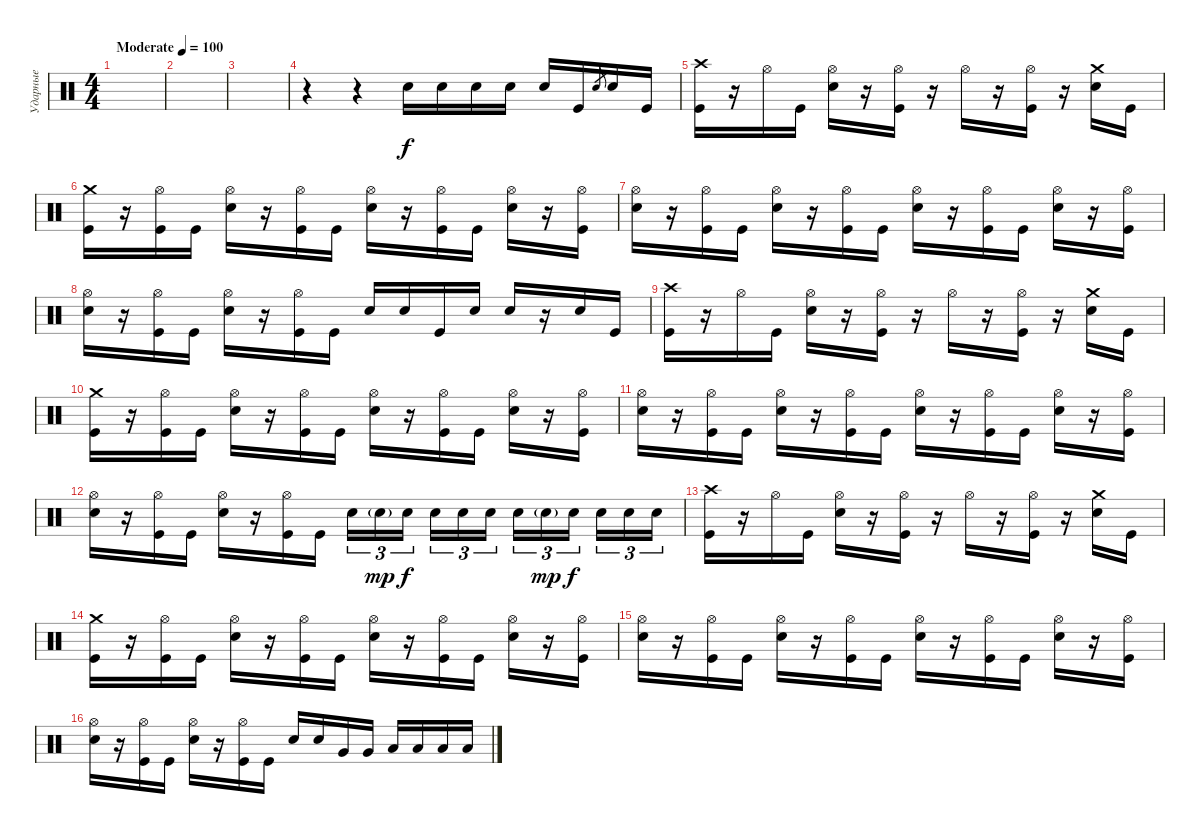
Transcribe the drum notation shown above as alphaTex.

\track ("Ударные" "Ударные") {instrument percussion}
\staff {score}
\articulation defaults
\ts (4 4)
\tempo (100 "Moderate")
\clef neutral
\ks c
|
|
|
r.4 r.4 "Electric Snare (hit)".16 "Electric Snare (hit)".16 "Electric Snare (hit)".16 "Electric Snare (hit)".16 "Electric Snare (hit)".16 "Kick (hit)".16 "Electric Snare (hit)".8{gr} "Electric Snare (hit)".16 "Kick (hit)".16 |
("Crash high (hit)" "Kick (hit)").16 r.16 "Hi-Hat (open)".16 "Kick (hit)".16 ("Hi-Hat (open)" "Electric Snare (hit)").16 r.16 ("Hi-Hat (open)" "Kick (hit)").16 r.16 "Hi-Hat (open)".16 r.16 ("Hi-Hat (open)" "Kick (hit)").16 r.16 ("Crash medium (hit)" "Electric Snare (hit)").16 "Kick (hit)".16 |
("Crash medium (hit)" "Kick (hit)").16 r.16 ("Hi-Hat (open)" "Kick (hit)").16 "Kick (hit)".16 ("Hi-Hat (open)" "Electric Snare (hit)").16 r.16 ("Hi-Hat (open)" "Kick (hit)").16 "Kick (hit)".16 ("Hi-Hat (open)" "Electric Snare (hit)").16 r.16 ("Hi-Hat (open)" "Kick (hit)").16 "Kick (hit)".16 ("Hi-Hat (open)" "Electric Snare (hit)").16 r.16 ("Hi-Hat (open)" "Kick (hit)").16 |
("Hi-Hat (open)" "Electric Snare (hit)").16 r.16 ("Hi-Hat (open)" "Kick (hit)").16 "Kick (hit)".16 ("Hi-Hat (open)" "Electric Snare (hit)").16 r.16 ("Hi-Hat (open)" "Kick (hit)").16 "Kick (hit)".16 ("Hi-Hat (open)" "Electric Snare (hit)").16 r.16 ("Hi-Hat (open)" "Kick (hit)").16 "Kick (hit)".16 ("Hi-Hat (open)" "Electric Snare (hit)").16 r.16 ("Hi-Hat (open)" "Kick (hit)").16 |
("Hi-Hat (open)" "Electric Snare (hit)").16 r.16 ("Hi-Hat (open)" "Kick (hit)").16 "Kick (hit)".16 ("Hi-Hat (open)" "Electric Snare (hit)").16 r.16 ("Hi-Hat (open)" "Kick (hit)").16 "Kick (hit)".16 "Electric Snare (hit)".16 "Electric Snare (hit)".16 "Kick (hit)".16 "Electric Snare (hit)".16 "Electric Snare (hit)".16 r.16 "Electric Snare (hit)".16 "Kick (hit)".16 |
("Crash high (hit)" "Kick (hit)").16 r.16 "Hi-Hat (open)".16 "Kick (hit)".16 ("Hi-Hat (open)" "Electric Snare (hit)").16 r.16 ("Hi-Hat (open)" "Kick (hit)").16 r.16 "Hi-Hat (open)".16 r.16 ("Hi-Hat (open)" "Kick (hit)").16 r.16 ("Crash medium (hit)" "Electric Snare (hit)").16 "Kick (hit)".16 |
("Crash medium (hit)" "Kick (hit)").16 r.16 ("Hi-Hat (open)" "Kick (hit)").16 "Kick (hit)".16 ("Hi-Hat (open)" "Electric Snare (hit)").16 r.16 ("Hi-Hat (open)" "Kick (hit)").16 "Kick (hit)".16 ("Hi-Hat (open)" "Electric Snare (hit)").16 r.16 ("Hi-Hat (open)" "Kick (hit)").16 "Kick (hit)".16 ("Hi-Hat (open)" "Electric Snare (hit)").16 r.16 ("Hi-Hat (open)" "Kick (hit)").16 |
("Hi-Hat (open)" "Electric Snare (hit)").16 r.16 ("Hi-Hat (open)" "Kick (hit)").16 "Kick (hit)".16 ("Hi-Hat (open)" "Electric Snare (hit)").16 r.16 ("Hi-Hat (open)" "Kick (hit)").16 "Kick (hit)".16 ("Hi-Hat (open)" "Electric Snare (hit)").16 r.16 ("Hi-Hat (open)" "Kick (hit)").16 "Kick (hit)".16 ("Hi-Hat (open)" "Electric Snare (hit)").16 r.16 ("Hi-Hat (open)" "Kick (hit)").16 |
("Hi-Hat (open)" "Electric Snare (hit)").16 r.16 ("Hi-Hat (open)" "Kick (hit)").16 "Kick (hit)".16 ("Hi-Hat (open)" "Electric Snare (hit)").16 r.16 ("Hi-Hat (open)" "Kick (hit)").16 "Kick (hit)".16 "Electric Snare (hit)".16{tu (3 2)} "Electric Snare (hit)"{g}.16{tu (3 2) dy mp} "Electric Snare (hit)".16{tu (3 2) dy f beam splitsecondary} "Electric Snare (hit)".16{tu (3 2)} "Electric Snare (hit)".16{tu (3 2)} "Electric Snare (hit)".16{tu (3 2)} "Electric Snare (hit)".16{tu (3 2)} "Electric Snare (hit)"{g}.16{tu (3 2) dy mp} "Electric Snare (hit)".16{tu (3 2) dy f beam splitsecondary} "Electric Snare (hit)".16{tu (3 2)} "Electric Snare (hit)".16{tu (3 2)} "Electric Snare (hit)".16{tu (3 2)} |
("Crash high (hit)" "Kick (hit)").16 r.16 "Hi-Hat (open)".16 "Kick (hit)".16 ("Hi-Hat (open)" "Electric Snare (hit)").16 r.16 ("Hi-Hat (open)" "Kick (hit)").16 r.16 "Hi-Hat (open)".16 r.16 ("Hi-Hat (open)" "Kick (hit)").16 r.16 ("Crash medium (hit)" "Electric Snare (hit)").16 "Kick (hit)".16 |
("Crash medium (hit)" "Kick (hit)").16 r.16 ("Hi-Hat (open)" "Kick (hit)").16 "Kick (hit)".16 ("Hi-Hat (open)" "Electric Snare (hit)").16 r.16 ("Hi-Hat (open)" "Kick (hit)").16 "Kick (hit)".16 ("Hi-Hat (open)" "Electric Snare (hit)").16 r.16 ("Hi-Hat (open)" "Kick (hit)").16 "Kick (hit)".16 ("Hi-Hat (open)" "Electric Snare (hit)").16 r.16 ("Hi-Hat (open)" "Kick (hit)").16 |
("Hi-Hat (open)" "Electric Snare (hit)").16 r.16 ("Hi-Hat (open)" "Kick (hit)").16 "Kick (hit)".16 ("Hi-Hat (open)" "Electric Snare (hit)").16 r.16 ("Hi-Hat (open)" "Kick (hit)").16 "Kick (hit)".16 ("Hi-Hat (open)" "Electric Snare (hit)").16 r.16 ("Hi-Hat (open)" "Kick (hit)").16 "Kick (hit)".16 ("Hi-Hat (open)" "Electric Snare (hit)").16 r.16 ("Hi-Hat (open)" "Kick (hit)").16 |
("Hi-Hat (open)" "Electric Snare (hit)").16 r.16 ("Hi-Hat (open)" "Kick (hit)").16 "Kick (hit)".16 ("Hi-Hat (open)" "Electric Snare (hit)").16 r.16 ("Hi-Hat (open)" "Kick (hit)").16 "Kick (hit)".16 "Electric Snare (hit)".16 "Electric Snare (hit)".16 "Very Low Tom (hit)".16 "Very Low Tom (hit)".16 "Low Floor Tom (hit)".16 "Low Floor Tom (hit)".16 "Low Floor Tom (hit)".16 "Low Floor Tom (hit)".16
